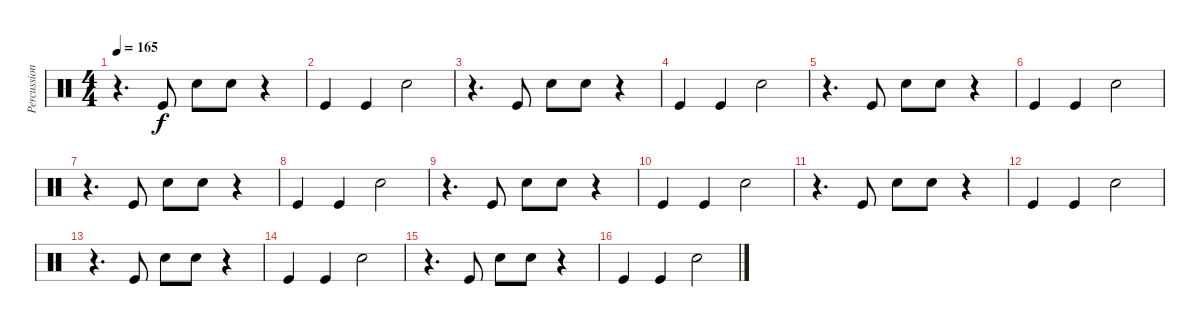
\track ("Percussion" "Percussion") {instrument percussion}
\staff {score}
\articulation defaults
\ts (4 4)
\tempo 165
\clef neutral
\ks c
r.4{d dy f} "Kick (hit)".8 "Electric Snare (hit)".8 "Electric Snare (hit)".8 r.4 |
"Kick (hit)".4{volume 6} "Kick (hit)".4 "Electric Snare (hit)".2 |
r.4{d} "Kick (hit)".8 "Electric Snare (hit)".8 "Electric Snare (hit)".8 r.4 |
"Kick (hit)".4{volume 6} "Kick (hit)".4 "Electric Snare (hit)".2 |
r.4{d} "Kick (hit)".8 "Electric Snare (hit)".8 "Electric Snare (hit)".8 r.4 |
"Kick (hit)".4{volume 6} "Kick (hit)".4 "Electric Snare (hit)".2 |
r.4{d} "Kick (hit)".8 "Electric Snare (hit)".8 "Electric Snare (hit)".8 r.4 |
"Kick (hit)".4{volume 6} "Kick (hit)".4 "Electric Snare (hit)".2 |
r.4{d} "Kick (hit)".8 "Electric Snare (hit)".8 "Electric Snare (hit)".8 r.4 |
"Kick (hit)".4{volume 6} "Kick (hit)".4 "Electric Snare (hit)".2 |
r.4{d} "Kick (hit)".8 "Electric Snare (hit)".8 "Electric Snare (hit)".8 r.4 |
"Kick (hit)".4{volume 6} "Kick (hit)".4 "Electric Snare (hit)".2 |
r.4{d} "Kick (hit)".8 "Electric Snare (hit)".8 "Electric Snare (hit)".8 r.4 |
"Kick (hit)".4{volume 6} "Kick (hit)".4 "Electric Snare (hit)".2 |
r.4{d} "Kick (hit)".8 "Electric Snare (hit)".8 "Electric Snare (hit)".8 r.4 |
"Kick (hit)".4{volume 6} "Kick (hit)".4 "Electric Snare (hit)".2
